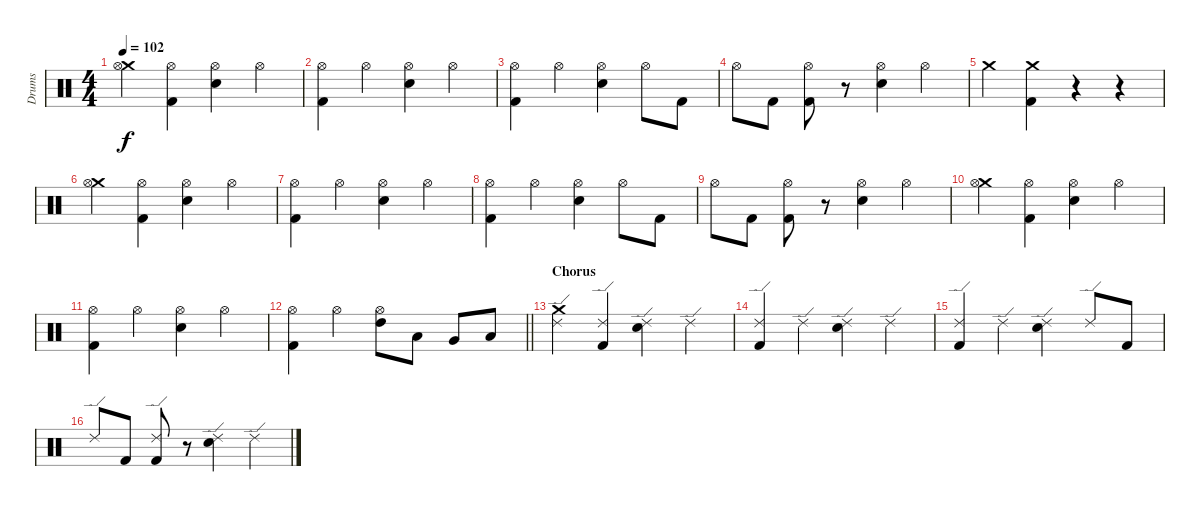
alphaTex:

\track ("Drums" "Drums") {instrument percussion}
\staff {score}
\articulation defaults
\ts (4 4)
\tempo 102
\clef neutral
\ks c
("Crash medium (hit)" "Hi-Hat (open)").4{dy f} ("Hi-Hat (open)" "Kick (hit) 2").4 ("Hi-Hat (open)" "Electric Snare (hit)").4 "Hi-Hat (open)".4 |
("Hi-Hat (open)" "Kick (hit) 2").4 "Hi-Hat (open)".4 ("Hi-Hat (open)" "Electric Snare (hit)").4 "Hi-Hat (open)".4 |
("Hi-Hat (open)" "Kick (hit) 2").4 "Hi-Hat (open)".4 ("Hi-Hat (open)" "Electric Snare (hit)").4 "Hi-Hat (open)".8 "Kick (hit) 2".8 |
"Hi-Hat (open)".8 "Kick (hit) 2".8 ("Hi-Hat (open)" "Kick (hit) 2").8 r.8 ("Hi-Hat (open)" "Electric Snare (hit)").4 "Hi-Hat (open)".4 |
"Crash medium (hit)".4 ("Crash medium (hit)" "Kick (hit) 2").4 r.4 r.4 |
("Crash medium (hit)" "Hi-Hat (open)").4 ("Hi-Hat (open)" "Kick (hit) 2").4 ("Hi-Hat (open)" "Electric Snare (hit)").4 "Hi-Hat (open)".4 |
("Hi-Hat (open)" "Kick (hit) 2").4 "Hi-Hat (open)".4 ("Hi-Hat (open)" "Electric Snare (hit)").4 "Hi-Hat (open)".4 |
("Hi-Hat (open)" "Kick (hit) 2").4 "Hi-Hat (open)".4 ("Hi-Hat (open)" "Electric Snare (hit)").4 "Hi-Hat (open)".8 "Kick (hit) 2".8 |
"Hi-Hat (open)".8 "Kick (hit) 2".8 ("Hi-Hat (open)" "Kick (hit) 2").8 r.8 ("Hi-Hat (open)" "Electric Snare (hit)").4 "Hi-Hat (open)".4 |
("Crash medium (hit)" "Hi-Hat (open)").4 ("Hi-Hat (open)" "Kick (hit) 2").4 ("Hi-Hat (open)" "Electric Snare (hit)").4 "Hi-Hat (open)".4 |
("Hi-Hat (open)" "Kick (hit) 2").4 "Hi-Hat (open)".4 ("Hi-Hat (open)" "Electric Snare (hit)").4 "Hi-Hat (open)".4 |
\barLineRight lightlight
("Hi-Hat (open)" "Kick (hit) 2").4 "Hi-Hat (open)".4 ("Hi-Hat (open)" "High Tom (hit)").8 "Low Tom (hit)".8 "Very Low Tom (hit)".8 "Low Floor Tom (hit)".8 |
\section ("" "Chorus")
("Crash medium (hit)" "Ride (edge) 2").4 ("Ride (edge) 2" "Kick (hit) 2").4 ("Ride (edge) 2" "Electric Snare (hit)").4 "Ride (edge) 2".4 |
("Ride (edge) 2" "Kick (hit) 2").4 "Ride (edge) 2".4 ("Ride (edge) 2" "Electric Snare (hit)").4 "Ride (edge) 2".4 |
("Ride (edge) 2" "Kick (hit) 2").4 "Ride (edge) 2".4 ("Ride (edge) 2" "Electric Snare (hit)").4 "Ride (edge) 2".8 "Kick (hit) 2".8 |
"Ride (edge) 2".8 "Kick (hit) 2".8 ("Ride (edge) 2" "Kick (hit) 2").8 r.8 ("Ride (edge) 2" "Electric Snare (hit)").4 "Ride (edge) 2".4
